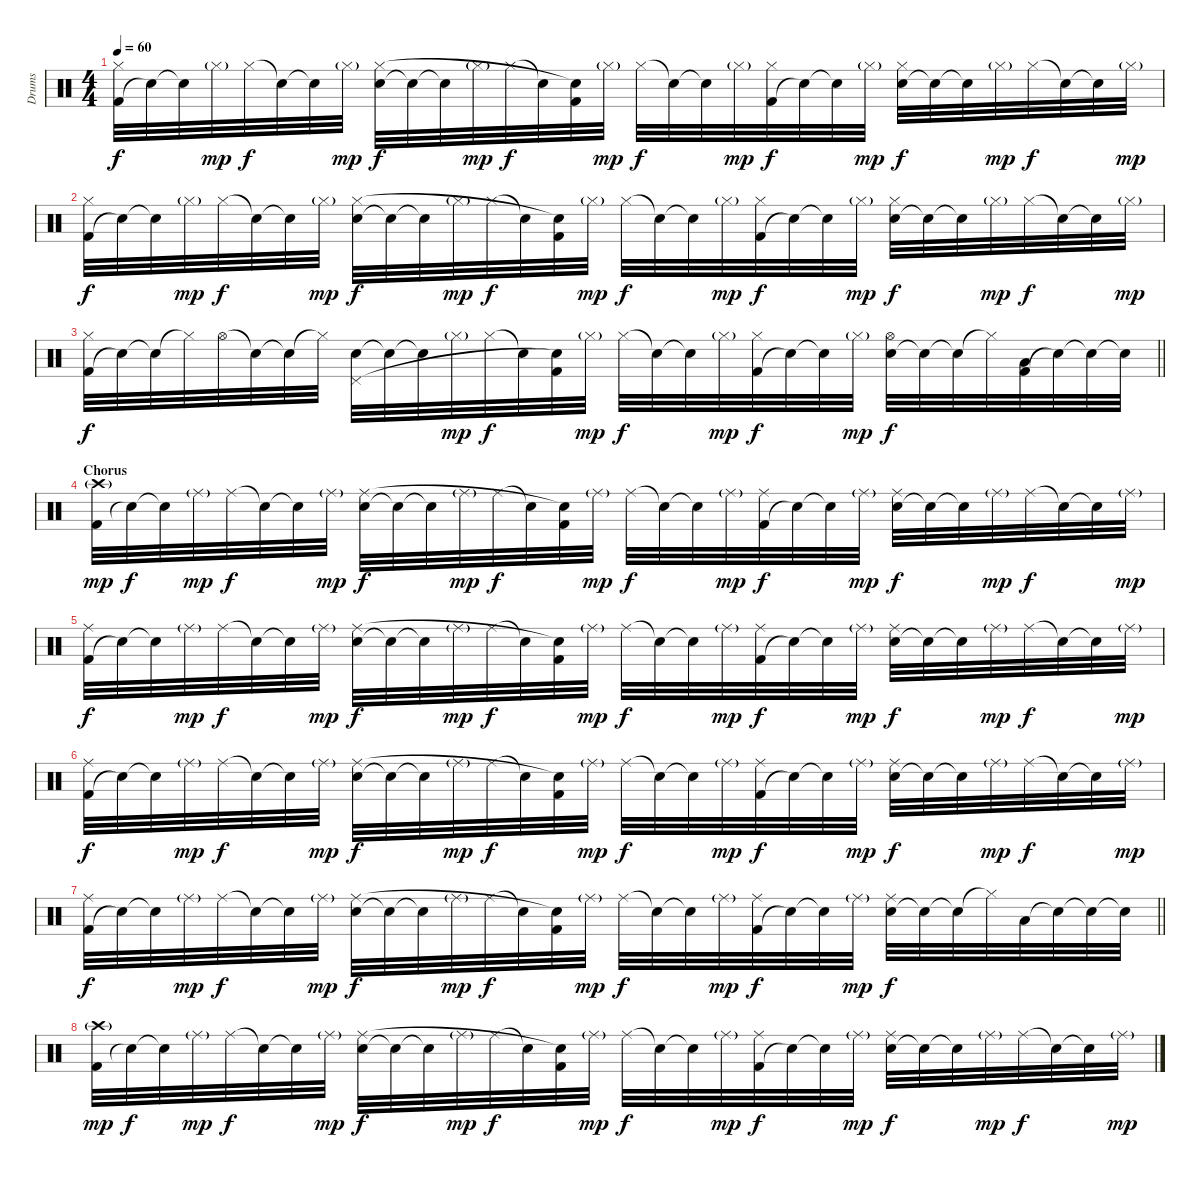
\track ("Drums" "Drums") {instrument percussion}
\staff {score}
\articulation defaults
\ts (4 4)
\tempo 60
\clef neutral
\ks c
("Kick (hit) 2" "Hi-Hat (closed)").32{dy f} "Snare (hit)"{t}.32 "Snare (hit)"{t}.32 "Hi-Hat (closed)"{g}.32{dy mp} "Hi-Hat (closed)".32{dy f} "Snare (hit)"{t}.32 "Snare (hit)"{t}.32 "Hi-Hat (closed)"{g}.32{dy mp} ("Electric Snare (hit)" "Hi-Hat (closed)").32{dy f} "Snare (hit)"{t}.32 "Snare (hit)"{t}.32 "Hi-Hat (closed)"{g}.32{dy mp} "Hi-Hat (closed)".32{dy f} "Snare (hit)"{t}.32 ("Kick (hit) 2" "Snare (hit)"{t}).32 "Hi-Hat (closed)"{g}.32{dy mp} "Hi-Hat (closed)".32{dy f} "Snare (hit)"{t}.32 "Snare (hit)"{t}.32 "Hi-Hat (closed)"{g}.32{dy mp} ("Kick (hit) 2" "Hi-Hat (closed)").32{dy f} "Snare (hit)"{t}.32 "Snare (hit)"{t}.32 "Hi-Hat (closed)"{g}.32{dy mp} ("Electric Snare (hit)" "Hi-Hat (closed)").32{dy f} "Snare (hit)"{t}.32 "Snare (hit)"{t}.32 "Hi-Hat (closed)"{g}.32{dy mp} "Hi-Hat (closed)".32{dy f} "Snare (hit)"{t}.32 "Snare (hit)"{t}.32 "Hi-Hat (closed)"{g}.32{dy mp} |
("Kick (hit) 2" "Hi-Hat (closed)").32{dy f} "Snare (hit)"{t}.32 "Snare (hit)"{t}.32 "Hi-Hat (closed)"{g}.32{dy mp} "Hi-Hat (closed)".32{dy f} "Snare (hit)"{t}.32 "Snare (hit)"{t}.32 "Hi-Hat (closed)"{g}.32{dy mp} ("Electric Snare (hit)" "Hi-Hat (closed)").32{dy f} "Snare (hit)"{t}.32 "Snare (hit)"{t}.32 "Hi-Hat (closed)"{g}.32{dy mp} "Hi-Hat (closed)".32{dy f} "Snare (hit)"{t}.32 ("Kick (hit) 2" "Snare (hit)"{t}).32 "Hi-Hat (closed)"{g}.32{dy mp} "Hi-Hat (closed)".32{dy f} "Snare (hit)"{t}.32 "Snare (hit)"{t}.32 "Hi-Hat (closed)"{g}.32{dy mp} ("Kick (hit) 2" "Hi-Hat (closed)").32{dy f} "Snare (hit)"{t}.32 "Snare (hit)"{t}.32 "Hi-Hat (closed)"{g}.32{dy mp} ("Electric Snare (hit)" "Hi-Hat (closed)").32{dy f} "Snare (hit)"{t}.32 "Snare (hit)"{t}.32 "Hi-Hat (closed)"{g}.32{dy mp} "Hi-Hat (closed)".32{dy f} "Snare (hit)"{t}.32 "Snare (hit)"{t}.32 "Hi-Hat (closed)"{g}.32{dy mp} |
\barLineRight lightlight
("Kick (hit) 2" "Hi-Hat (closed)").32{dy f} "Snare (hit)"{t}.32 "Snare (hit)"{t}.32 "Hi-Hat (closed)"{t}.32 "Hi-Hat (open)".32 "Snare (hit)"{t}.32 "Snare (hit)"{t}.32 "Hi-Hat (closed)"{t}.32 ("Electric Snare (hit)" "Pedal Hi-Hat (hit)").32 "Snare (hit)"{t}.32 "Snare (hit)"{t}.32 "Hi-Hat (closed)"{g}.32{dy mp} "Hi-Hat (closed)".32{dy f} "Snare (hit)"{t}.32 ("Kick (hit) 2" "Snare (hit)"{t}).32 "Hi-Hat (closed)"{g}.32{dy mp} "Hi-Hat (closed)".32{dy f} "Snare (hit)"{t}.32 "Snare (hit)"{t}.32 "Hi-Hat (closed)"{g}.32{dy mp} ("Kick (hit) 2" "Hi-Hat (closed)").32{dy f} "Snare (hit)"{t}.32 "Snare (hit)"{t}.32 "Hi-Hat (closed)"{g}.32{dy mp} ("Electric Snare (hit)" "Hi-Hat (open)").32{dy f} "Snare (hit)"{t}.32 "Snare (hit)"{t}.32 "Hi-Hat (closed)"{t}.32 ("Kick (hit) 2" "Low Floor Tom (hit)").32 "Snare (hit)"{t}.32 "Snare (hit)"{t}.32 "Snare (hit)"{t}.32 |
\section ("" "Chorus")
("Kick (hit) 2" "Crash high (hit)"{g}).32{dy mp} "Snare (hit)"{t}.32{dy f} "Snare (hit)"{t}.32 "Ride (middle)"{g}.32{dy mp} "Ride (middle)".32{dy f} "Snare (hit)"{t}.32 "Snare (hit)"{t}.32 "Ride (middle)"{g}.32{dy mp} ("Electric Snare (hit)" "Ride (middle)").32{dy f} "Snare (hit)"{t}.32 "Snare (hit)"{t}.32 "Ride (middle)"{g}.32{dy mp} "Ride (middle)".32{dy f} "Snare (hit)"{t}.32 ("Kick (hit) 2" "Snare (hit)"{t}).32 "Ride (middle)"{g}.32{dy mp} "Ride (middle)".32{dy f} "Snare (hit)"{t}.32 "Snare (hit)"{t}.32 "Ride (middle)"{g}.32{dy mp} ("Kick (hit) 2" "Ride (middle)").32{dy f} "Snare (hit)"{t}.32 "Snare (hit)"{t}.32 "Ride (middle)"{g}.32{dy mp} ("Electric Snare (hit)" "Ride (middle)").32{dy f} "Snare (hit)"{t}.32 "Snare (hit)"{t}.32 "Ride (middle)"{g}.32{dy mp} "Ride (middle)".32{dy f} "Snare (hit)"{t}.32 "Snare (hit)"{t}.32 "Ride (middle)"{g}.32{dy mp} |
("Kick (hit) 2" "Ride (middle)").32{dy f} "Snare (hit)"{t}.32 "Snare (hit)"{t}.32 "Ride (middle)"{g}.32{dy mp} "Ride (middle)".32{dy f} "Snare (hit)"{t}.32 "Snare (hit)"{t}.32 "Ride (middle)"{g}.32{dy mp} ("Electric Snare (hit)" "Ride (middle)").32{dy f} "Snare (hit)"{t}.32 "Snare (hit)"{t}.32 "Ride (middle)"{g}.32{dy mp} "Ride (middle)".32{dy f} "Snare (hit)"{t}.32 ("Kick (hit) 2" "Snare (hit)"{t}).32 "Ride (middle)"{g}.32{dy mp} "Ride (middle)".32{dy f} "Snare (hit)"{t}.32 "Snare (hit)"{t}.32 "Ride (middle)"{g}.32{dy mp} ("Kick (hit) 2" "Ride (middle)").32{dy f} "Snare (hit)"{t}.32 "Snare (hit)"{t}.32 "Ride (middle)"{g}.32{dy mp} ("Electric Snare (hit)" "Ride (middle)").32{dy f} "Snare (hit)"{t}.32 "Snare (hit)"{t}.32 "Ride (middle)"{g}.32{dy mp} "Ride (middle)".32{dy f} "Snare (hit)"{t}.32 "Snare (hit)"{t}.32 "Ride (middle)"{g}.32{dy mp} |
("Kick (hit) 2" "Ride (middle)").32{dy f} "Snare (hit)"{t}.32 "Snare (hit)"{t}.32 "Ride (middle)"{g}.32{dy mp} "Ride (middle)".32{dy f} "Snare (hit)"{t}.32 "Snare (hit)"{t}.32 "Ride (middle)"{g}.32{dy mp} ("Electric Snare (hit)" "Ride (middle)").32{dy f} "Snare (hit)"{t}.32 "Snare (hit)"{t}.32 "Ride (middle)"{g}.32{dy mp} "Ride (middle)".32{dy f} "Snare (hit)"{t}.32 ("Kick (hit) 2" "Snare (hit)"{t}).32 "Ride (middle)"{g}.32{dy mp} "Ride (middle)".32{dy f} "Snare (hit)"{t}.32 "Snare (hit)"{t}.32 "Ride (middle)"{g}.32{dy mp} ("Kick (hit) 2" "Ride (middle)").32{dy f} "Snare (hit)"{t}.32 "Snare (hit)"{t}.32 "Ride (middle)"{g}.32{dy mp} ("Electric Snare (hit)" "Ride (middle)").32{dy f} "Snare (hit)"{t}.32 "Snare (hit)"{t}.32 "Ride (middle)"{g}.32{dy mp} "Ride (middle)".32{dy f} "Snare (hit)"{t}.32 "Snare (hit)"{t}.32 "Ride (middle)"{g}.32{dy mp} |
\barLineRight lightlight
("Kick (hit) 2" "Ride (middle)").32{dy f} "Snare (hit)"{t}.32 "Snare (hit)"{t}.32 "Ride (middle)"{g}.32{dy mp} "Ride (middle)".32{dy f} "Snare (hit)"{t}.32 "Snare (hit)"{t}.32 "Ride (middle)"{g}.32{dy mp} ("Electric Snare (hit)" "Ride (middle)").32{dy f} "Snare (hit)"{t}.32 "Snare (hit)"{t}.32 "Ride (middle)"{g}.32{dy mp} "Ride (middle)".32{dy f} "Snare (hit)"{t}.32 ("Kick (hit) 2" "Snare (hit)"{t}).32 "Ride (middle)"{g}.32{dy mp} "Ride (middle)".32{dy f} "Snare (hit)"{t}.32 "Snare (hit)"{t}.32 "Ride (middle)"{g}.32{dy mp} ("Kick (hit) 2" "Ride (middle)").32{dy f} "Snare (hit)"{t}.32 "Snare (hit)"{t}.32 "Ride (middle)"{g}.32{dy mp} ("Electric Snare (hit)" "Ride (middle)").32{dy f} "Snare (hit)"{t}.32 "Snare (hit)"{t}.32 "Hi-Hat (closed)"{t}.32 "Low Floor Tom (hit)".32 "Snare (hit)"{t}.32 "Snare (hit)"{t}.32 "Snare (hit)"{t}.32 |
("Kick (hit) 2" "Crash high (hit)"{g}).32{dy mp} "Snare (hit)"{t}.32{dy f} "Snare (hit)"{t}.32 "Ride (middle)"{g}.32{dy mp} "Ride (middle)".32{dy f} "Snare (hit)"{t}.32 "Snare (hit)"{t}.32 "Ride (middle)"{g}.32{dy mp} ("Electric Snare (hit)" "Ride (middle)").32{dy f} "Snare (hit)"{t}.32 "Snare (hit)"{t}.32 "Ride (middle)"{g}.32{dy mp} "Ride (middle)".32{dy f} "Snare (hit)"{t}.32 ("Kick (hit) 2" "Snare (hit)"{t}).32 "Ride (middle)"{g}.32{dy mp} "Ride (middle)".32{dy f} "Snare (hit)"{t}.32 "Snare (hit)"{t}.32 "Ride (middle)"{g}.32{dy mp} ("Kick (hit) 2" "Ride (middle)").32{dy f} "Snare (hit)"{t}.32 "Snare (hit)"{t}.32 "Ride (middle)"{g}.32{dy mp} ("Electric Snare (hit)" "Ride (middle)").32{dy f} "Snare (hit)"{t}.32 "Snare (hit)"{t}.32 "Ride (middle)"{g}.32{dy mp} "Ride (middle)".32{dy f} "Snare (hit)"{t}.32 "Snare (hit)"{t}.32 "Ride (middle)"{g}.32{dy mp}
